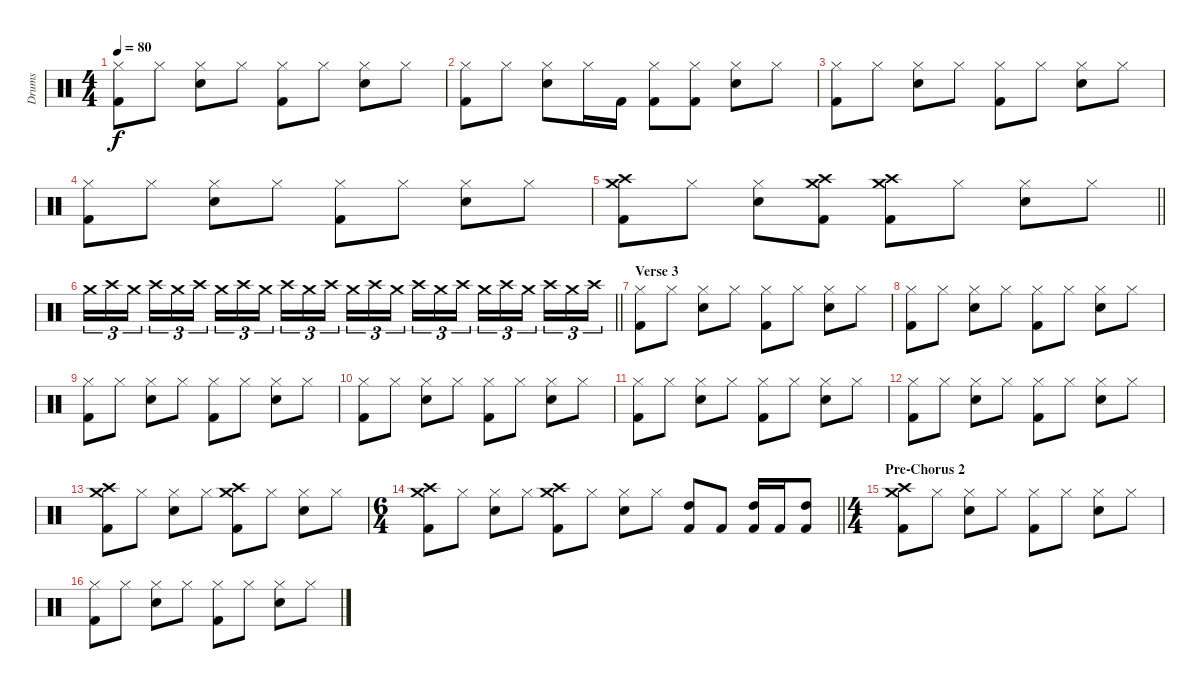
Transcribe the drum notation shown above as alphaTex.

\track ("Drums" "Drums") {instrument percussion}
\staff {score}
\articulation defaults
\ts (4 4)
\tempo 80
\clef neutral
\ks c
("Hi-Hat (closed)" "Kick (hit) 2").8{dy f} "Hi-Hat (closed)".8 ("Hi-Hat (closed)" "Snare (hit) 2").8 "Hi-Hat (closed)".8 ("Hi-Hat (closed)" "Kick (hit) 2").8 "Hi-Hat (closed)".8 ("Hi-Hat (closed)" "Snare (hit) 2").8 "Hi-Hat (closed)".8 |
("Hi-Hat (closed)" "Kick (hit) 2").8 "Hi-Hat (closed)".8 ("Hi-Hat (closed)" "Snare (hit) 2").8 "Hi-Hat (closed)".16 "Kick (hit) 2".16 ("Hi-Hat (closed)" "Kick (hit) 2").8 ("Hi-Hat (closed)" "Kick (hit) 2").8 ("Hi-Hat (closed)" "Snare (hit) 2").8 "Hi-Hat (closed)".8 |
("Hi-Hat (closed)" "Kick (hit) 2").8 "Hi-Hat (closed)".8 ("Hi-Hat (closed)" "Snare (hit) 2").8 "Hi-Hat (closed)".8 ("Hi-Hat (closed)" "Kick (hit) 2").8 "Hi-Hat (closed)".8 ("Hi-Hat (closed)" "Snare (hit) 2").8 "Hi-Hat (closed)".8 |
("Hi-Hat (closed)" "Kick (hit) 2").8 "Hi-Hat (closed)".8 ("Hi-Hat (closed)" "Snare (hit) 2").8 "Hi-Hat (closed)".8 ("Hi-Hat (closed)" "Kick (hit) 2").8 "Hi-Hat (closed)".8 ("Hi-Hat (closed)" "Snare (hit) 2").8 "Hi-Hat (closed)".8 |
\barLineRight lightlight
("Crash medium (hit)" "Crash high (hit)" "Kick (hit) 2").8 "Hi-Hat (closed)".8 ("Hi-Hat (closed)" "Snare (hit) 2").8 ("Crash medium (hit)" "Crash high (hit)" "Kick (hit) 2").8 ("Crash medium (hit)" "Crash high (hit)" "Kick (hit) 2").8 "Hi-Hat (closed)".8 ("Hi-Hat (closed)" "Snare (hit) 2").8 "Hi-Hat (closed)".8 |
\barLineRight lightlight "Crash medium (hit)".16{tu (3 2)} "Crash high (hit)".16{tu (3 2)} "Crash medium (hit)".16{tu (3 2) beam splitsecondary} "Crash high (hit)".16{tu (3 2)} "Crash medium (hit)".16{tu (3 2)} "Crash high (hit)".16{tu (3 2)} "Crash medium (hit)".16{tu (3 2)} "Crash high (hit)".16{tu (3 2)} "Crash medium (hit)".16{tu (3 2) beam splitsecondary} "Crash high (hit)".16{tu (3 2)} "Crash medium (hit)".16{tu (3 2)} "Crash high (hit)".16{tu (3 2)} "Crash medium (hit)".16{tu (3 2)} "Crash high (hit)".16{tu (3 2)} "Crash medium (hit)".16{tu (3 2) beam splitsecondary} "Crash high (hit)".16{tu (3 2)} "Crash medium (hit)".16{tu (3 2)} "Crash high (hit)".16{tu (3 2)} "Crash medium (hit)".16{tu (3 2)} "Crash high (hit)".16{tu (3 2)} "Crash medium (hit)".16{tu (3 2) beam splitsecondary} "Crash high (hit)".16{tu (3 2)} "Crash medium (hit)".16{tu (3 2)} "Crash high (hit)".16{tu (3 2)}
|
\section ("" "Verse 3")
("Hi-Hat (closed)" "Kick (hit) 2").8 "Hi-Hat (closed)".8 ("Hi-Hat (closed)" "Snare (hit) 2").8 "Hi-Hat (closed)".8 ("Hi-Hat (closed)" "Kick (hit) 2").8 "Hi-Hat (closed)".8 ("Hi-Hat (closed)" "Snare (hit) 2").8 "Hi-Hat (closed)".8 |
("Hi-Hat (closed)" "Kick (hit) 2").8 "Hi-Hat (closed)".8 ("Hi-Hat (closed)" "Snare (hit) 2").8 "Hi-Hat (closed)".8 ("Hi-Hat (closed)" "Kick (hit) 2").8 "Hi-Hat (closed)".8 ("Hi-Hat (closed)" "Snare (hit) 2").8 "Hi-Hat (closed)".8 |
("Hi-Hat (closed)" "Kick (hit) 2").8 "Hi-Hat (closed)".8 ("Hi-Hat (closed)" "Snare (hit) 2").8 "Hi-Hat (closed)".8 ("Hi-Hat (closed)" "Kick (hit) 2").8 "Hi-Hat (closed)".8 ("Hi-Hat (closed)" "Snare (hit) 2").8 "Hi-Hat (closed)".8 |
("Hi-Hat (closed)" "Kick (hit) 2").8 "Hi-Hat (closed)".8 ("Hi-Hat (closed)" "Snare (hit) 2").8 "Hi-Hat (closed)".8 ("Hi-Hat (closed)" "Kick (hit) 2").8 "Hi-Hat (closed)".8 ("Hi-Hat (closed)" "Snare (hit) 2").8 "Hi-Hat (closed)".8 |
("Hi-Hat (closed)" "Kick (hit) 2").8 "Hi-Hat (closed)".8 ("Hi-Hat (closed)" "Snare (hit) 2").8 "Hi-Hat (closed)".8 ("Hi-Hat (closed)" "Kick (hit) 2").8 "Hi-Hat (closed)".8 ("Hi-Hat (closed)" "Snare (hit) 2").8 "Hi-Hat (closed)".8 |
("Hi-Hat (closed)" "Kick (hit) 2").8 "Hi-Hat (closed)".8 ("Hi-Hat (closed)" "Snare (hit) 2").8 "Hi-Hat (closed)".8 ("Hi-Hat (closed)" "Kick (hit) 2").8 "Hi-Hat (closed)".8 ("Hi-Hat (closed)" "Snare (hit) 2").8 "Hi-Hat (closed)".8 |
("Crash medium (hit)" "Crash high (hit)" "Kick (hit) 2").8 "Hi-Hat (closed)".8 ("Hi-Hat (closed)" "Snare (hit) 2").8 "Hi-Hat (closed)".8 ("Crash medium (hit)" "Crash high (hit)" "Kick (hit) 2").8 "Hi-Hat (closed)".8 ("Hi-Hat (closed)" "Snare (hit) 2").8 "Hi-Hat (closed)".8 |
\ts (6 4)
\barLineRight lightlight
("Crash medium (hit)" "Crash high (hit)" "Kick (hit) 2").8 "Hi-Hat (closed)".8 ("Hi-Hat (closed)" "Snare (hit) 2").8 "Hi-Hat (closed)".8 ("Crash medium (hit)" "Crash high (hit)" "Kick (hit) 2").8 "Hi-Hat (closed)".8 ("Hi-Hat (closed)" "Snare (hit) 2").8 "Hi-Hat (closed)".8 ("High Tom (hit)" "Kick (hit) 2").8 "Kick (hit) 2".8 ("High Tom (hit)" "Kick (hit) 2").16 "Kick (hit) 2".16 ("High Tom (hit)" "Kick (hit) 2").8 |
\ts (4 4)
\section ("" "Pre-Chorus 2")
("Crash medium (hit)" "Crash high (hit)" "Kick (hit) 2").8 "Hi-Hat (closed)".8 ("Hi-Hat (closed)" "Snare (hit) 2").8 "Hi-Hat (closed)".8 ("Hi-Hat (closed)" "Kick (hit) 2").8 "Hi-Hat (closed)".8 ("Hi-Hat (closed)" "Snare (hit) 2").8 "Hi-Hat (closed)".8 |
("Hi-Hat (closed)" "Kick (hit) 2").8 "Hi-Hat (closed)".8 ("Hi-Hat (closed)" "Snare (hit) 2").8 "Hi-Hat (closed)".8 ("Hi-Hat (closed)" "Kick (hit) 2").8 "Hi-Hat (closed)".8 ("Hi-Hat (closed)" "Snare (hit) 2").8 "Hi-Hat (closed)".8
